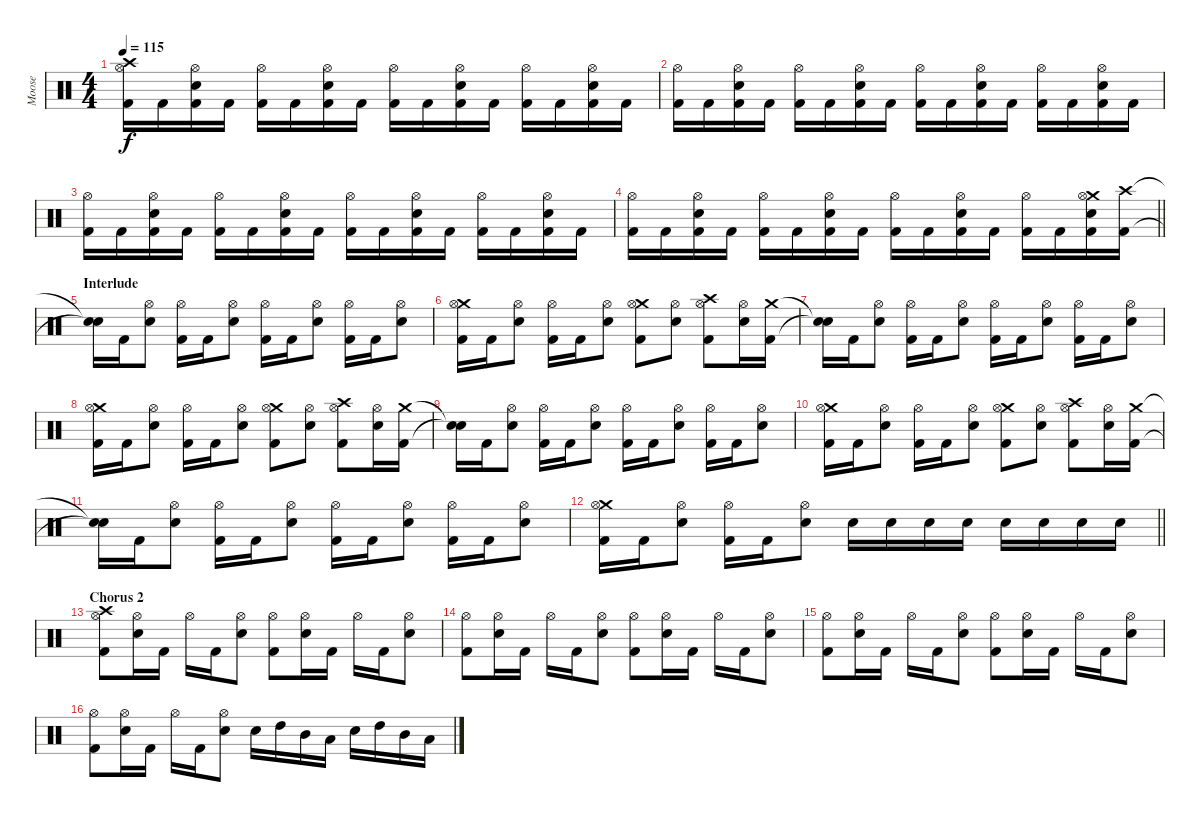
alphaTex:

\track ("Moose" "Moose") {instrument percussion}
\staff {score}
\articulation defaults
\ts (4 4)
\tempo 115
\clef neutral
\ks c
("Crash high (hit)" "Hi-Hat (open)" "Kick (hit) 2").16{dy f} "Kick (hit) 2".16 ("Hi-Hat (open)" "Electric Snare (hit)" "Kick (hit) 2").16 "Kick (hit) 2".16 ("Hi-Hat (open)" "Kick (hit) 2").16 "Kick (hit) 2".16 ("Hi-Hat (open)" "Electric Snare (hit)" "Kick (hit) 2").16 "Kick (hit) 2".16 ("Hi-Hat (open)" "Kick (hit) 2").16 "Kick (hit) 2".16 ("Hi-Hat (open)" "Electric Snare (hit)" "Kick (hit) 2").16 "Kick (hit) 2".16 ("Hi-Hat (open)" "Kick (hit) 2").16 "Kick (hit) 2".16 ("Hi-Hat (open)" "Electric Snare (hit)" "Kick (hit) 2").16 "Kick (hit) 2".16 |
("Hi-Hat (open)" "Kick (hit) 2").16 "Kick (hit) 2".16 ("Hi-Hat (open)" "Electric Snare (hit)" "Kick (hit) 2").16 "Kick (hit) 2".16 ("Hi-Hat (open)" "Kick (hit) 2").16 "Kick (hit) 2".16 ("Hi-Hat (open)" "Electric Snare (hit)" "Kick (hit) 2").16 "Kick (hit) 2".16 ("Hi-Hat (open)" "Kick (hit) 2").16 "Kick (hit) 2".16 ("Hi-Hat (open)" "Electric Snare (hit)" "Kick (hit) 2").16 "Kick (hit) 2".16 ("Hi-Hat (open)" "Kick (hit) 2").16 "Kick (hit) 2".16 ("Hi-Hat (open)" "Electric Snare (hit)" "Kick (hit) 2").16 "Kick (hit) 2".16 |
("Hi-Hat (open)" "Kick (hit) 2").16 "Kick (hit) 2".16 ("Hi-Hat (open)" "Electric Snare (hit)" "Kick (hit) 2").16 "Kick (hit) 2".16 ("Hi-Hat (open)" "Kick (hit) 2").16 "Kick (hit) 2".16 ("Hi-Hat (open)" "Electric Snare (hit)" "Kick (hit) 2").16 "Kick (hit) 2".16 ("Hi-Hat (open)" "Kick (hit) 2").16 "Kick (hit) 2".16 ("Hi-Hat (open)" "Electric Snare (hit)" "Kick (hit) 2").16 "Kick (hit) 2".16 ("Hi-Hat (open)" "Kick (hit) 2").16 "Kick (hit) 2".16 ("Hi-Hat (open)" "Electric Snare (hit)" "Kick (hit) 2").16 "Kick (hit) 2".16 |
\barLineRight lightlight
("Hi-Hat (open)" "Kick (hit) 2").16 "Kick (hit) 2".16 ("Hi-Hat (open)" "Electric Snare (hit)" "Kick (hit) 2").16 "Kick (hit) 2".16 ("Hi-Hat (open)" "Kick (hit) 2").16 "Kick (hit) 2".16 ("Hi-Hat (open)" "Electric Snare (hit)" "Kick (hit) 2").16 "Kick (hit) 2".16 ("Hi-Hat (open)" "Kick (hit) 2").16 "Kick (hit) 2".16 ("Hi-Hat (open)" "Electric Snare (hit)" "Kick (hit) 2").16 "Kick (hit) 2".16 ("Hi-Hat (open)" "Kick (hit) 2").16 "Kick (hit) 2".16 ("Crash medium (hit)" "Hi-Hat (open)" "Electric Snare (hit)" "Kick (hit) 2").16 ("Crash high (hit)" "Kick (hit) 2").16 |
\section ("" "Interlude")
("Snare (hit)"{t} "Snare (hit)"{t}).16 "Kick (hit) 2".16 ("Hi-Hat (open)" "Electric Snare (hit)").8 ("Hi-Hat (open)" "Kick (hit) 2").16 "Kick (hit) 2".16 ("Hi-Hat (open)" "Electric Snare (hit)").8 ("Hi-Hat (open)" "Kick (hit) 2").16 "Kick (hit) 2".16 ("Hi-Hat (open)" "Electric Snare (hit)").8 ("Hi-Hat (open)" "Kick (hit) 2").16 "Kick (hit) 2".16 ("Hi-Hat (open)" "Electric Snare (hit)").8 |
("Crash medium (hit)" "Hi-Hat (open)" "Kick (hit) 2").16 "Kick (hit) 2".16 ("Hi-Hat (open)" "Electric Snare (hit)").8 ("Hi-Hat (open)" "Kick (hit) 2").16 "Kick (hit) 2".16 ("Hi-Hat (open)" "Electric Snare (hit)").8 ("Crash medium (hit)" "Hi-Hat (open)" "Kick (hit) 2").8 ("Hi-Hat (open)" "Electric Snare (hit)").8 ("Crash high (hit)" "Hi-Hat (open)" "Kick (hit) 2").8 ("Hi-Hat (open)" "Electric Snare (hit)").16 ("Crash medium (hit)" "Kick (hit) 2").16 |
("Snare (hit)"{t} "Snare (hit)"{t}).16 "Kick (hit) 2".16 ("Hi-Hat (open)" "Electric Snare (hit)").8 ("Hi-Hat (open)" "Kick (hit) 2").16 "Kick (hit) 2".16 ("Hi-Hat (open)" "Electric Snare (hit)").8 ("Hi-Hat (open)" "Kick (hit) 2").16 "Kick (hit) 2".16 ("Hi-Hat (open)" "Electric Snare (hit)").8 ("Hi-Hat (open)" "Kick (hit) 2").16 "Kick (hit) 2".16 ("Hi-Hat (open)" "Electric Snare (hit)").8 |
("Crash medium (hit)" "Hi-Hat (open)" "Kick (hit) 2").16 "Kick (hit) 2".16 ("Hi-Hat (open)" "Electric Snare (hit)").8 ("Hi-Hat (open)" "Kick (hit) 2").16 "Kick (hit) 2".16 ("Hi-Hat (open)" "Electric Snare (hit)").8 ("Crash medium (hit)" "Hi-Hat (open)" "Kick (hit) 2").8 ("Hi-Hat (open)" "Electric Snare (hit)").8 ("Crash high (hit)" "Hi-Hat (open)" "Kick (hit) 2").8 ("Hi-Hat (open)" "Electric Snare (hit)").16 ("Crash medium (hit)" "Kick (hit) 2").16 |
("Snare (hit)"{t} "Snare (hit)"{t}).16 "Kick (hit) 2".16 ("Hi-Hat (open)" "Electric Snare (hit)").8 ("Hi-Hat (open)" "Kick (hit) 2").16 "Kick (hit) 2".16 ("Hi-Hat (open)" "Electric Snare (hit)").8 ("Hi-Hat (open)" "Kick (hit) 2").16 "Kick (hit) 2".16 ("Hi-Hat (open)" "Electric Snare (hit)").8 ("Hi-Hat (open)" "Kick (hit) 2").16 "Kick (hit) 2".16 ("Hi-Hat (open)" "Electric Snare (hit)").8 |
("Crash medium (hit)" "Hi-Hat (open)" "Kick (hit) 2").16 "Kick (hit) 2".16 ("Hi-Hat (open)" "Electric Snare (hit)").8 ("Hi-Hat (open)" "Kick (hit) 2").16 "Kick (hit) 2".16 ("Hi-Hat (open)" "Electric Snare (hit)").8 ("Crash medium (hit)" "Hi-Hat (open)" "Kick (hit) 2").8 ("Hi-Hat (open)" "Electric Snare (hit)").8 ("Crash high (hit)" "Hi-Hat (open)" "Kick (hit) 2").8 ("Hi-Hat (open)" "Electric Snare (hit)").16 ("Crash medium (hit)" "Kick (hit) 2").16 |
("Snare (hit)"{t} "Snare (hit)"{t}).16 "Kick (hit) 2".16 ("Hi-Hat (open)" "Electric Snare (hit)").8 ("Hi-Hat (open)" "Kick (hit) 2").16 "Kick (hit) 2".16 ("Hi-Hat (open)" "Electric Snare (hit)").8 ("Hi-Hat (open)" "Kick (hit) 2").16 "Kick (hit) 2".16 ("Hi-Hat (open)" "Electric Snare (hit)").8 ("Hi-Hat (open)" "Kick (hit) 2").16 "Kick (hit) 2".16 ("Hi-Hat (open)" "Electric Snare (hit)").8 |
\barLineRight lightlight
("Crash medium (hit)" "Hi-Hat (open)" "Kick (hit) 2").16 "Kick (hit) 2".16 ("Hi-Hat (open)" "Electric Snare (hit)").8 ("Hi-Hat (open)" "Kick (hit) 2").16 "Kick (hit) 2".16 ("Hi-Hat (open)" "Electric Snare (hit)").8 "Electric Snare (hit)".16 "Electric Snare (hit)".16 "Electric Snare (hit)".16 "Electric Snare (hit)".16 "Electric Snare (hit)".16 "Electric Snare (hit)".16 "Electric Snare (hit)".16 "Electric Snare (hit)".16 |
\section ("" "Chorus 2")
("Crash high (hit)" "Hi-Hat (open)" "Kick (hit) 2").8 ("Hi-Hat (open)" "Electric Snare (hit)").16 "Kick (hit) 2".16 "Hi-Hat (open)".16 "Kick (hit) 2".16 ("Hi-Hat (open)" "Electric Snare (hit)").8 ("Hi-Hat (open)" "Kick (hit) 2").8 ("Hi-Hat (open)" "Electric Snare (hit)").16 "Kick (hit) 2".16 "Hi-Hat (open)".16 "Kick (hit) 2".16 ("Hi-Hat (open)" "Electric Snare (hit)").8 |
("Hi-Hat (open)" "Kick (hit) 2").8 ("Hi-Hat (open)" "Electric Snare (hit)").16 "Kick (hit) 2".16 "Hi-Hat (open)".16 "Kick (hit) 2".16 ("Hi-Hat (open)" "Electric Snare (hit)").8 ("Hi-Hat (open)" "Kick (hit) 2").8 ("Hi-Hat (open)" "Electric Snare (hit)").16 "Kick (hit) 2".16 "Hi-Hat (open)".16 "Kick (hit) 2".16 ("Hi-Hat (open)" "Electric Snare (hit)").8 |
("Hi-Hat (open)" "Kick (hit) 2").8 ("Hi-Hat (open)" "Electric Snare (hit)").16 "Kick (hit) 2".16 "Hi-Hat (open)".16 "Kick (hit) 2".16 ("Hi-Hat (open)" "Electric Snare (hit)").8 ("Hi-Hat (open)" "Kick (hit) 2").8 ("Hi-Hat (open)" "Electric Snare (hit)").16 "Kick (hit) 2".16 "Hi-Hat (open)".16 "Kick (hit) 2".16 ("Hi-Hat (open)" "Electric Snare (hit)").8 |
("Hi-Hat (open)" "Kick (hit) 2").8 ("Hi-Hat (open)" "Electric Snare (hit)").16 "Kick (hit) 2".16 "Hi-Hat (open)".16 "Kick (hit) 2".16 ("Hi-Hat (open)" "Electric Snare (hit)").8 "Electric Snare (hit)".16 "High Tom (hit)".16 "Mid Tom (hit)".16 "Low Tom (hit)".16 "Electric Snare (hit)".16 "High Tom (hit)".16 "Mid Tom (hit)".16 "Low Tom (hit)".16
